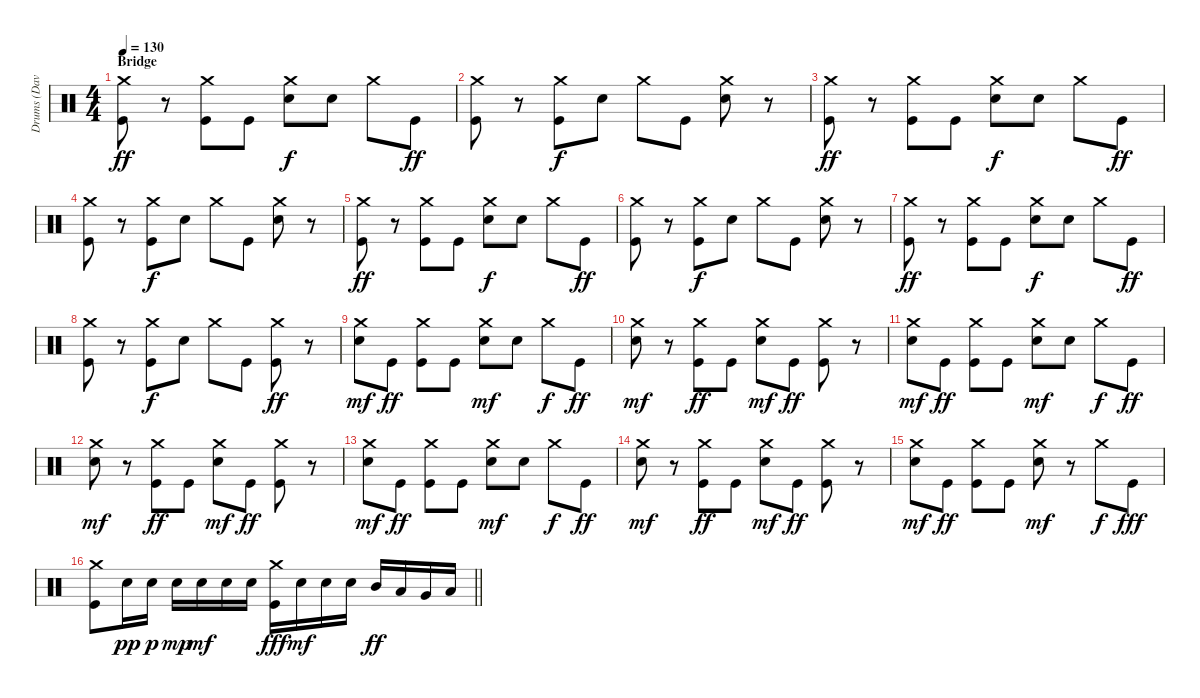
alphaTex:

\track ("Drums (Dave Chavarri)" "Drums (Dav") {instrument percussion}
\staff {score}
\articulation defaults
\ts (4 4)
\section ("" "Bridge")
\tempo 130
\clef neutral
\ks c
("Crash medium (hit)" "Kick (hit)").8{dy ff} r.8 ("Crash medium (hit)" "Kick (hit)").8 "Kick (hit)".8 ("Crash medium (hit)" "Electric Snare (hit)").8{dy f} "Electric Snare (hit)".8 "Crash medium (hit)".8 "Kick (hit)".8{dy ff} |
("Crash medium (hit)" "Kick (hit)").8 r.8 ("Crash medium (hit)" "Kick (hit)").8{dy f} "Electric Snare (hit)".8 "Crash medium (hit)".8 "Kick (hit)".8 ("Crash medium (hit)" "Electric Snare (hit)").8 r.8 |
("Crash medium (hit)" "Kick (hit)").8{dy ff} r.8 ("Crash medium (hit)" "Kick (hit)").8 "Kick (hit)".8 ("Crash medium (hit)" "Electric Snare (hit)").8{dy f} "Electric Snare (hit)".8 "Crash medium (hit)".8 "Kick (hit)".8{dy ff} |
("Crash medium (hit)" "Kick (hit)").8 r.8 ("Crash medium (hit)" "Kick (hit)").8{dy f} "Electric Snare (hit)".8 "Crash medium (hit)".8 "Kick (hit)".8 ("Crash medium (hit)" "Electric Snare (hit)").8 r.8 |
("Crash medium (hit)" "Kick (hit)").8{dy ff} r.8 ("Crash medium (hit)" "Kick (hit)").8 "Kick (hit)".8 ("Crash medium (hit)" "Electric Snare (hit)").8{dy f} "Electric Snare (hit)".8 "Crash medium (hit)".8 "Kick (hit)".8{dy ff} |
("Crash medium (hit)" "Kick (hit)").8 r.8 ("Crash medium (hit)" "Kick (hit)").8{dy f} "Electric Snare (hit)".8 "Crash medium (hit)".8 "Kick (hit)".8 ("Crash medium (hit)" "Electric Snare (hit)").8 r.8 |
("Crash medium (hit)" "Kick (hit)").8{dy ff} r.8 ("Crash medium (hit)" "Kick (hit)").8 "Kick (hit)".8 ("Crash medium (hit)" "Electric Snare (hit)").8{dy f} "Electric Snare (hit)".8 "Crash medium (hit)".8 "Kick (hit)".8{dy ff} |
("Crash medium (hit)" "Kick (hit)").8 r.8 ("Crash medium (hit)" "Kick (hit)").8{dy f} "Electric Snare (hit)".8 "Crash medium (hit)".8 "Kick (hit)".8 ("Crash medium (hit)" "Kick (hit)").8{dy ff} r.8 |
("Crash medium (hit)" "Electric Snare (hit)").8{dy mf} "Kick (hit)".8{dy ff} ("Crash medium (hit)" "Kick (hit)").8 "Kick (hit)".8 ("Crash medium (hit)" "Electric Snare (hit)").8{dy mf} "Electric Snare (hit)".8 "Crash medium (hit)".8{dy f} "Kick (hit)".8{dy ff} |
("Crash medium (hit)" "Electric Snare (hit)").8{dy mf} r.8 ("Crash medium (hit)" "Kick (hit)").8{dy ff} "Kick (hit)".8 ("Crash medium (hit)" "Electric Snare (hit)").8{dy mf} "Kick (hit)".8{dy ff} ("Crash medium (hit)" "Kick (hit)").8 r.8 |
("Crash medium (hit)" "Electric Snare (hit)").8{dy mf} "Kick (hit)".8{dy ff} ("Crash medium (hit)" "Kick (hit)").8 "Kick (hit)".8 ("Crash medium (hit)" "Electric Snare (hit)").8{dy mf} "Electric Snare (hit)".8 "Crash medium (hit)".8{dy f} "Kick (hit)".8{dy ff} |
("Crash medium (hit)" "Electric Snare (hit)").8{dy mf} r.8 ("Crash medium (hit)" "Kick (hit)").8{dy ff} "Kick (hit)".8 ("Crash medium (hit)" "Electric Snare (hit)").8{dy mf} "Kick (hit)".8{dy ff} ("Crash medium (hit)" "Kick (hit)").8 r.8 |
("Crash medium (hit)" "Electric Snare (hit)").8{dy mf} "Kick (hit)".8{dy ff} ("Crash medium (hit)" "Kick (hit)").8 "Kick (hit)".8 ("Crash medium (hit)" "Electric Snare (hit)").8{dy mf} "Electric Snare (hit)".8 "Crash medium (hit)".8{dy f} "Kick (hit)".8{dy ff} |
("Crash medium (hit)" "Electric Snare (hit)").8{dy mf} r.8 ("Crash medium (hit)" "Kick (hit)").8{dy ff} "Kick (hit)".8 ("Crash medium (hit)" "Electric Snare (hit)").8{dy mf} "Kick (hit)".8{dy ff} ("Crash medium (hit)" "Kick (hit)").8 r.8 |
("Crash medium (hit)" "Electric Snare (hit)").8{dy mf} "Kick (hit)".8{dy ff} ("Crash medium (hit)" "Kick (hit)").8 "Kick (hit)".8 ("Crash medium (hit)" "Electric Snare (hit)").8{dy mf} r.8 "Crash medium (hit)".8{dy f} "Kick (hit)".8{dy fff} |
\barLineRight lightlight
("Crash medium (hit)" "Kick (hit)").8 "Electric Snare (hit)".16{dy pp} "Electric Snare (hit)".16{dy p} "Electric Snare (hit)".16{dy mp} "Electric Snare (hit)".16{dy mf} "Electric Snare (hit)".16 "Electric Snare (hit)".16 ("Crash medium (hit)" "Kick (hit)").16{dy fff} "Electric Snare (hit)".16{dy mf} "Electric Snare (hit)".16 "Electric Snare (hit)".16 "Mid Tom (hit)".16{dy ff} "Low Tom (hit)".16 "Very Low Tom (hit)".16 "Low Floor Tom (hit)".16
